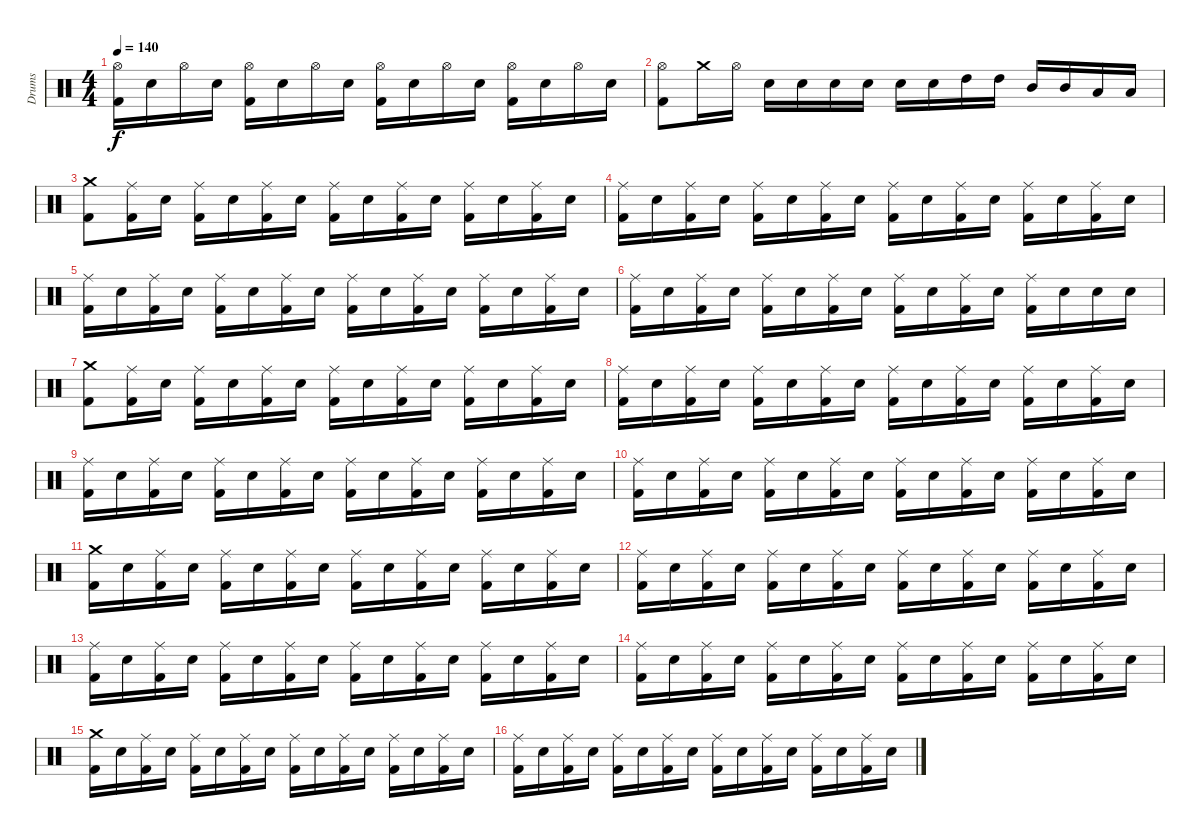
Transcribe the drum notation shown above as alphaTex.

\track ("Drums" "Drums") {instrument percussion}
\staff {score}
\articulation defaults
\ts (4 4)
\tempo 140
\clef neutral
\ks c
("Hi-Hat (open)" "Kick (hit) 2").16{dy f} "Electric Snare (hit)".16 "Hi-Hat (open)".16 "Electric Snare (hit)".16 ("Hi-Hat (open)" "Kick (hit) 2").16 "Electric Snare (hit)".16 "Hi-Hat (open)".16 "Electric Snare (hit)".16 ("Hi-Hat (open)" "Kick (hit) 2").16 "Electric Snare (hit)".16 "Hi-Hat (open)".16 "Electric Snare (hit)".16 ("Hi-Hat (open)" "Kick (hit) 2").16 "Electric Snare (hit)".16 "Hi-Hat (open)".16 "Electric Snare (hit)".16 |
("Hi-Hat (open)" "Kick (hit) 2").8 "Crash medium (hit)".16 "Hi-Hat (open)".16 "Electric Snare (hit)".16 "Electric Snare (hit)".16 "Electric Snare (hit)".16 "Electric Snare (hit)".16 "Electric Snare (hit)".16 "Electric Snare (hit)".16 "High Tom (hit)".16 "High Tom (hit)".16 "Mid Tom (hit)".16 "Mid Tom (hit)".16 "Low Tom (hit)".16 "Low Tom (hit)".16 |
("Crash medium (hit)" "Kick (hit) 2").8 ("Ride (middle)" "Kick (hit) 2").16 "Electric Snare (hit)".16 ("Ride (middle)" "Kick (hit) 2").16 "Electric Snare (hit)".16 ("Ride (middle)" "Kick (hit) 2").16 "Electric Snare (hit)".16 ("Ride (middle)" "Kick (hit) 2").16 "Electric Snare (hit)".16 ("Ride (middle)" "Kick (hit) 2").16 "Electric Snare (hit)".16 ("Ride (middle)" "Kick (hit) 2").16 "Electric Snare (hit)".16 ("Ride (middle)" "Kick (hit) 2").16 "Electric Snare (hit)".16 |
("Ride (middle)" "Kick (hit) 2").16 "Electric Snare (hit)".16 ("Ride (middle)" "Kick (hit) 2").16 "Electric Snare (hit)".16 ("Ride (middle)" "Kick (hit) 2").16 "Electric Snare (hit)".16 ("Ride (middle)" "Kick (hit) 2").16 "Electric Snare (hit)".16 ("Ride (middle)" "Kick (hit) 2").16 "Electric Snare (hit)".16 ("Ride (middle)" "Kick (hit) 2").16 "Electric Snare (hit)".16 ("Ride (middle)" "Kick (hit) 2").16 "Electric Snare (hit)".16 ("Ride (middle)" "Kick (hit) 2").16 "Electric Snare (hit)".16 |
("Ride (middle)" "Kick (hit) 2").16 "Electric Snare (hit)".16 ("Ride (middle)" "Kick (hit) 2").16 "Electric Snare (hit)".16 ("Ride (middle)" "Kick (hit) 2").16 "Electric Snare (hit)".16 ("Ride (middle)" "Kick (hit) 2").16 "Electric Snare (hit)".16 ("Ride (middle)" "Kick (hit) 2").16 "Electric Snare (hit)".16 ("Ride (middle)" "Kick (hit) 2").16 "Electric Snare (hit)".16 ("Ride (middle)" "Kick (hit) 2").16 "Electric Snare (hit)".16 ("Ride (middle)" "Kick (hit) 2").16 "Electric Snare (hit)".16 |
("Ride (middle)" "Kick (hit) 2").16 "Electric Snare (hit)".16 ("Ride (middle)" "Kick (hit) 2").16 "Electric Snare (hit)".16 ("Ride (middle)" "Kick (hit) 2").16 "Electric Snare (hit)".16 ("Ride (middle)" "Kick (hit) 2").16 "Electric Snare (hit)".16 ("Ride (middle)" "Kick (hit) 2").16 "Electric Snare (hit)".16 ("Ride (middle)" "Kick (hit) 2").16 "Electric Snare (hit)".16 ("Ride (middle)" "Kick (hit) 2").16 "Electric Snare (hit)".16 "Electric Snare (hit)".16 "Electric Snare (hit)".16 |
("Crash medium (hit)" "Kick (hit) 2").8 ("Ride (middle)" "Kick (hit) 2").16 "Electric Snare (hit)".16 ("Ride (middle)" "Kick (hit) 2").16 "Electric Snare (hit)".16 ("Ride (middle)" "Kick (hit) 2").16 "Electric Snare (hit)".16 ("Ride (middle)" "Kick (hit) 2").16 "Electric Snare (hit)".16 ("Ride (middle)" "Kick (hit) 2").16 "Electric Snare (hit)".16 ("Ride (middle)" "Kick (hit) 2").16 "Electric Snare (hit)".16 ("Ride (middle)" "Kick (hit) 2").16 "Electric Snare (hit)".16 |
("Ride (middle)" "Kick (hit) 2").16 "Electric Snare (hit)".16 ("Ride (middle)" "Kick (hit) 2").16 "Electric Snare (hit)".16 ("Ride (middle)" "Kick (hit) 2").16 "Electric Snare (hit)".16 ("Ride (middle)" "Kick (hit) 2").16 "Electric Snare (hit)".16 ("Ride (middle)" "Kick (hit) 2").16 "Electric Snare (hit)".16 ("Ride (middle)" "Kick (hit) 2").16 "Electric Snare (hit)".16 ("Ride (middle)" "Kick (hit) 2").16 "Electric Snare (hit)".16 ("Ride (middle)" "Kick (hit) 2").16 "Electric Snare (hit)".16 |
("Ride (middle)" "Kick (hit) 2").16 "Electric Snare (hit)".16 ("Ride (middle)" "Kick (hit) 2").16 "Electric Snare (hit)".16 ("Ride (middle)" "Kick (hit) 2").16 "Electric Snare (hit)".16 ("Ride (middle)" "Kick (hit) 2").16 "Electric Snare (hit)".16 ("Ride (middle)" "Kick (hit) 2").16 "Electric Snare (hit)".16 ("Ride (middle)" "Kick (hit) 2").16 "Electric Snare (hit)".16 ("Ride (middle)" "Kick (hit) 2").16 "Electric Snare (hit)".16 ("Ride (middle)" "Kick (hit) 2").16 "Electric Snare (hit)".16 |
("Ride (middle)" "Kick (hit) 2").16 "Electric Snare (hit)".16 ("Ride (middle)" "Kick (hit) 2").16 "Electric Snare (hit)".16 ("Ride (middle)" "Kick (hit) 2").16 "Electric Snare (hit)".16 ("Ride (middle)" "Kick (hit) 2").16 "Electric Snare (hit)".16 ("Ride (middle)" "Kick (hit) 2").16 "Electric Snare (hit)".16 ("Ride (middle)" "Kick (hit) 2").16 "Electric Snare (hit)".16 ("Ride (middle)" "Kick (hit) 2").16 "Electric Snare (hit)".16 ("Ride (middle)" "Kick (hit) 2").16 "Electric Snare (hit)".16 |
("Crash medium (hit)" "Kick (hit) 2").16 "Electric Snare (hit)".16 ("Ride (middle)" "Kick (hit) 2").16 "Electric Snare (hit)".16 ("Ride (middle)" "Kick (hit) 2").16 "Electric Snare (hit)".16 ("Ride (middle)" "Kick (hit) 2").16 "Electric Snare (hit)".16 ("Ride (middle)" "Kick (hit) 2").16 "Electric Snare (hit)".16 ("Ride (middle)" "Kick (hit) 2").16 "Electric Snare (hit)".16 ("Ride (middle)" "Kick (hit) 2").16 "Electric Snare (hit)".16 ("Ride (middle)" "Kick (hit) 2").16 "Electric Snare (hit)".16 |
("Ride (middle)" "Kick (hit) 2").16 "Electric Snare (hit)".16 ("Ride (middle)" "Kick (hit) 2").16 "Electric Snare (hit)".16 ("Ride (middle)" "Kick (hit) 2").16 "Electric Snare (hit)".16 ("Ride (middle)" "Kick (hit) 2").16 "Electric Snare (hit)".16 ("Ride (middle)" "Kick (hit) 2").16 "Electric Snare (hit)".16 ("Ride (middle)" "Kick (hit) 2").16 "Electric Snare (hit)".16 ("Ride (middle)" "Kick (hit) 2").16 "Electric Snare (hit)".16 ("Ride (middle)" "Kick (hit) 2").16 "Electric Snare (hit)".16 |
("Ride (middle)" "Kick (hit) 2").16 "Electric Snare (hit)".16 ("Ride (middle)" "Kick (hit) 2").16 "Electric Snare (hit)".16 ("Ride (middle)" "Kick (hit) 2").16 "Electric Snare (hit)".16 ("Ride (middle)" "Kick (hit) 2").16 "Electric Snare (hit)".16 ("Ride (middle)" "Kick (hit) 2").16 "Electric Snare (hit)".16 ("Ride (middle)" "Kick (hit) 2").16 "Electric Snare (hit)".16 ("Ride (middle)" "Kick (hit) 2").16 "Electric Snare (hit)".16 ("Ride (middle)" "Kick (hit) 2").16 "Electric Snare (hit)".16 |
("Ride (middle)" "Kick (hit) 2").16 "Electric Snare (hit)".16 ("Ride (middle)" "Kick (hit) 2").16 "Electric Snare (hit)".16 ("Ride (middle)" "Kick (hit) 2").16 "Electric Snare (hit)".16 ("Ride (middle)" "Kick (hit) 2").16 "Electric Snare (hit)".16 ("Ride (middle)" "Kick (hit) 2").16 "Electric Snare (hit)".16 ("Ride (middle)" "Kick (hit) 2").16 "Electric Snare (hit)".16 ("Ride (middle)" "Kick (hit) 2").16 "Electric Snare (hit)".16 ("Ride (middle)" "Kick (hit) 2").16 "Electric Snare (hit)".16 |
("Crash medium (hit)" "Kick (hit) 2").16 "Electric Snare (hit)".16 ("Ride (middle)" "Kick (hit) 2").16 "Electric Snare (hit)".16 ("Ride (middle)" "Kick (hit) 2").16 "Electric Snare (hit)".16 ("Ride (middle)" "Kick (hit) 2").16 "Electric Snare (hit)".16 ("Ride (middle)" "Kick (hit) 2").16 "Electric Snare (hit)".16 ("Ride (middle)" "Kick (hit) 2").16 "Electric Snare (hit)".16 ("Ride (middle)" "Kick (hit) 2").16 "Electric Snare (hit)".16 ("Ride (middle)" "Kick (hit) 2").16 "Electric Snare (hit)".16 |
("Ride (middle)" "Kick (hit) 2").16 "Electric Snare (hit)".16 ("Ride (middle)" "Kick (hit) 2").16 "Electric Snare (hit)".16 ("Ride (middle)" "Kick (hit) 2").16 "Electric Snare (hit)".16 ("Ride (middle)" "Kick (hit) 2").16 "Electric Snare (hit)".16 ("Ride (middle)" "Kick (hit) 2").16 "Electric Snare (hit)".16 ("Ride (middle)" "Kick (hit) 2").16 "Electric Snare (hit)".16 ("Ride (middle)" "Kick (hit) 2").16 "Electric Snare (hit)".16 ("Ride (middle)" "Kick (hit) 2").16 "Electric Snare (hit)".16
